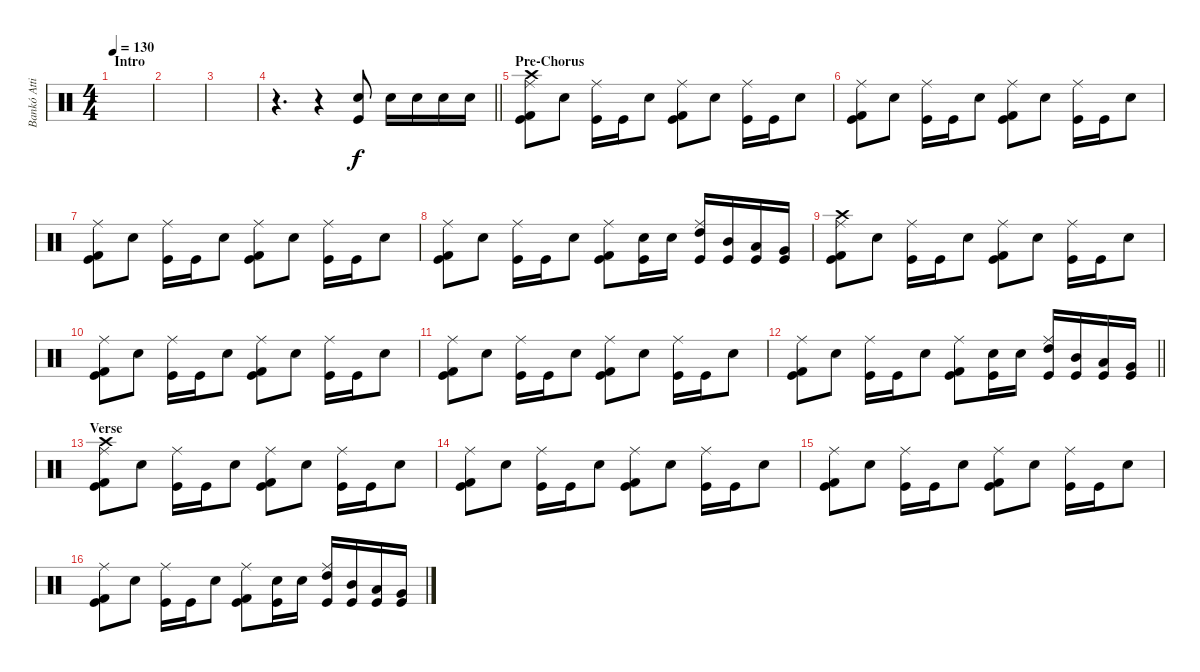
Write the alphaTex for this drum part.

\track ("Bankó Attila-Drum" "Bankó Atti") {instrument percussion}
\staff {score}
\articulation defaults
\ts (4 4)
\section ("" "Intro")
\tempo 130
\clef neutral
\ks c
|
|
|
\barLineRight lightlight
r.4{d} r.4 ("Kick (hit)" "Snare (hit) 2").8 "Snare (hit) 2".16 "Snare (hit) 2".16 "Snare (hit) 2".16 "Snare (hit) 2".16 |
\section ("" "Pre-Chorus")
("Kick (hit) 2" "Kick (hit)" "Crash high (hit)" "Ride (middle)").8 "Snare (hit) 2".8 ("Kick (hit)" "Ride (middle)").16 "Kick (hit)".16 "Snare (hit) 2".8 ("Kick (hit) 2" "Kick (hit)" "Ride (middle)").8 "Snare (hit) 2".8 ("Kick (hit)" "Ride (middle)").16 "Kick (hit)".16 "Snare (hit) 2".8 |
("Kick (hit) 2" "Kick (hit)" "Ride (middle)").8 "Snare (hit) 2".8 ("Kick (hit)" "Ride (middle)").16 "Kick (hit)".16 "Snare (hit) 2".8 ("Kick (hit) 2" "Kick (hit)" "Ride (middle)").8 "Snare (hit) 2".8 ("Kick (hit)" "Ride (middle)").16 "Kick (hit)".16 "Snare (hit) 2".8 |
("Kick (hit) 2" "Kick (hit)" "Ride (middle)").8 "Snare (hit) 2".8 ("Kick (hit)" "Ride (middle)").16 "Kick (hit)".16 "Snare (hit) 2".8 ("Kick (hit) 2" "Kick (hit)" "Ride (middle)").8 "Snare (hit) 2".8 ("Kick (hit)" "Ride (middle)").16 "Kick (hit)".16 "Snare (hit) 2".8 |
("Kick (hit) 2" "Kick (hit)" "Ride (middle)").8 "Snare (hit) 2".8 ("Kick (hit)" "Ride (middle)").16 "Kick (hit)".16 "Snare (hit) 2".8 ("Kick (hit) 2" "Kick (hit)" "Ride (middle)").8 ("Snare (hit) 2" "Kick (hit)").16 "Snare (hit) 2".16 ("High Tom (hit)" "Kick (hit)" "Ride (middle)").16 ("Mid Tom (hit)" "Kick (hit)").16 ("Low Tom (hit)" "Kick (hit)").16 ("Very Low Tom (hit)" "Kick (hit)").16 |
("Kick (hit) 2" "Kick (hit)" "Crash high (hit)" "Ride (middle)").8 "Snare (hit) 2".8 ("Kick (hit)" "Ride (middle)").16 "Kick (hit)".16 "Snare (hit) 2".8 ("Kick (hit) 2" "Kick (hit)" "Ride (middle)").8 "Snare (hit) 2".8 ("Kick (hit)" "Ride (middle)").16 "Kick (hit)".16 "Snare (hit) 2".8 |
("Kick (hit) 2" "Kick (hit)" "Ride (middle)").8 "Snare (hit) 2".8 ("Kick (hit)" "Ride (middle)").16 "Kick (hit)".16 "Snare (hit) 2".8 ("Kick (hit) 2" "Kick (hit)" "Ride (middle)").8 "Snare (hit) 2".8 ("Kick (hit)" "Ride (middle)").16 "Kick (hit)".16 "Snare (hit) 2".8 |
("Kick (hit) 2" "Kick (hit)" "Ride (middle)").8 "Snare (hit) 2".8 ("Kick (hit)" "Ride (middle)").16 "Kick (hit)".16 "Snare (hit) 2".8 ("Kick (hit) 2" "Kick (hit)" "Ride (middle)").8 "Snare (hit) 2".8 ("Kick (hit)" "Ride (middle)").16 "Kick (hit)".16 "Snare (hit) 2".8 |
\barLineRight lightlight
("Kick (hit) 2" "Kick (hit)" "Ride (middle)").8 "Snare (hit) 2".8 ("Kick (hit)" "Ride (middle)").16 "Kick (hit)".16 "Snare (hit) 2".8 ("Kick (hit) 2" "Kick (hit)" "Ride (middle)").8 ("Snare (hit) 2" "Kick (hit)").16 "Snare (hit) 2".16 ("High Tom (hit)" "Kick (hit)" "Ride (middle)").16 ("Mid Tom (hit)" "Kick (hit)").16 ("Low Tom (hit)" "Kick (hit)").16 ("Very Low Tom (hit)" "Kick (hit)").16 |
\section ("" "Verse")
("Kick (hit) 2" "Kick (hit)" "Crash high (hit)" "Ride (middle)").8 "Snare (hit) 2".8 ("Kick (hit)" "Ride (middle)").16 "Kick (hit)".16 "Snare (hit) 2".8 ("Kick (hit) 2" "Kick (hit)" "Ride (middle)").8 "Snare (hit) 2".8 ("Kick (hit)" "Ride (middle)").16 "Kick (hit)".16 "Snare (hit) 2".8 |
("Kick (hit) 2" "Kick (hit)" "Ride (middle)").8 "Snare (hit) 2".8 ("Kick (hit)" "Ride (middle)").16 "Kick (hit)".16 "Snare (hit) 2".8 ("Kick (hit) 2" "Kick (hit)" "Ride (middle)").8 "Snare (hit) 2".8 ("Kick (hit)" "Ride (middle)").16 "Kick (hit)".16 "Snare (hit) 2".8 |
("Kick (hit) 2" "Kick (hit)" "Ride (middle)").8 "Snare (hit) 2".8 ("Kick (hit)" "Ride (middle)").16 "Kick (hit)".16 "Snare (hit) 2".8 ("Kick (hit) 2" "Kick (hit)" "Ride (middle)").8 "Snare (hit) 2".8 ("Kick (hit)" "Ride (middle)").16 "Kick (hit)".16 "Snare (hit) 2".8 |
("Kick (hit) 2" "Kick (hit)" "Ride (middle)").8 "Snare (hit) 2".8 ("Kick (hit)" "Ride (middle)").16 "Kick (hit)".16 "Snare (hit) 2".8 ("Kick (hit) 2" "Kick (hit)" "Ride (middle)").8 ("Snare (hit) 2" "Kick (hit)").16 "Snare (hit) 2".16 ("High Tom (hit)" "Kick (hit)" "Ride (middle)").16 ("Mid Tom (hit)" "Kick (hit)").16 ("Low Tom (hit)" "Kick (hit)").16 ("Very Low Tom (hit)" "Kick (hit)").16
